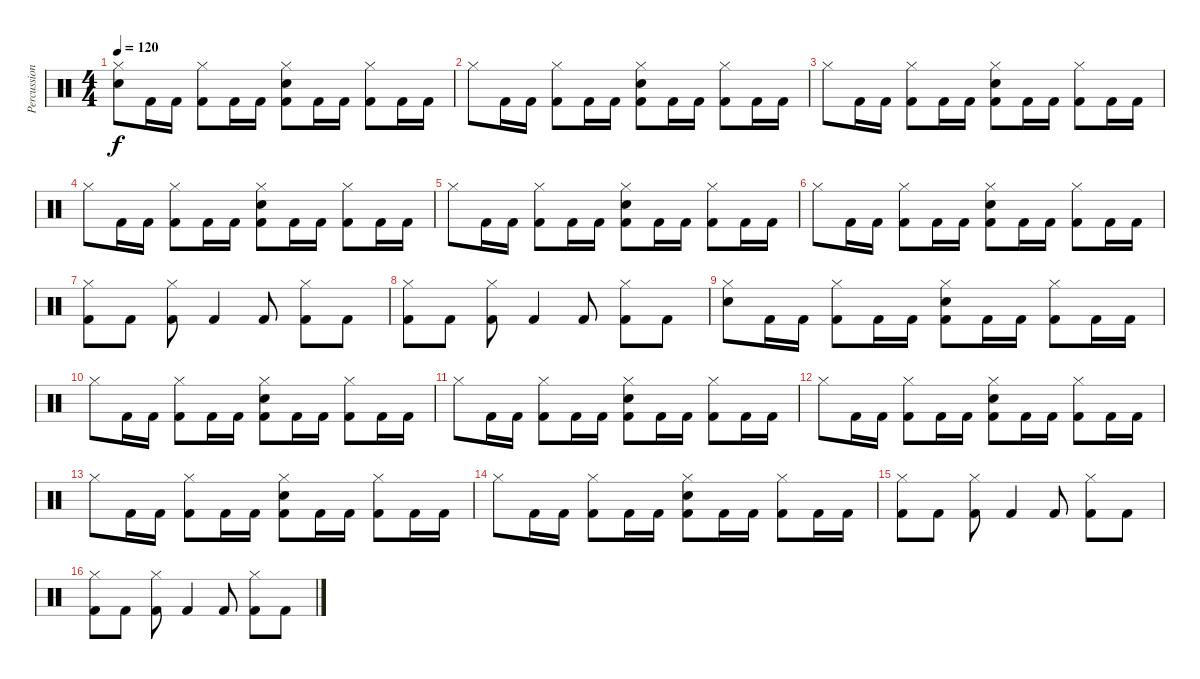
\track ("Percussion" "Percussion") {instrument percussion}
\staff {score}
\articulation defaults
\ts (4 4)
\tempo 120
\clef neutral
\ks c
("Hi-Hat (closed)" "Snare (hit) 2").8{dy f} "Kick (hit) 2".16 "Kick (hit) 2".16 ("Hi-Hat (closed)" "Kick (hit) 2").8 "Kick (hit) 2".16 "Kick (hit) 2".16 ("Hi-Hat (closed)" "Snare (hit) 2" "Kick (hit) 2").8 "Kick (hit) 2".16 "Kick (hit) 2".16 ("Hi-Hat (closed)" "Kick (hit) 2").8 "Kick (hit) 2".16 "Kick (hit) 2".16 |
"Hi-Hat (closed)".8 "Kick (hit) 2".16 "Kick (hit) 2".16 ("Hi-Hat (closed)" "Kick (hit) 2").8 "Kick (hit) 2".16 "Kick (hit) 2".16 ("Hi-Hat (closed)" "Snare (hit) 2" "Kick (hit) 2").8 "Kick (hit) 2".16 "Kick (hit) 2".16 ("Hi-Hat (closed)" "Kick (hit) 2").8 "Kick (hit) 2".16 "Kick (hit) 2".16 |
"Hi-Hat (closed)".8 "Kick (hit) 2".16 "Kick (hit) 2".16 ("Hi-Hat (closed)" "Kick (hit) 2").8 "Kick (hit) 2".16 "Kick (hit) 2".16 ("Hi-Hat (closed)" "Snare (hit) 2" "Kick (hit) 2").8 "Kick (hit) 2".16 "Kick (hit) 2".16 ("Hi-Hat (closed)" "Kick (hit) 2").8 "Kick (hit) 2".16 "Kick (hit) 2".16 |
"Hi-Hat (closed)".8 "Kick (hit) 2".16 "Kick (hit) 2".16 ("Hi-Hat (closed)" "Kick (hit) 2").8 "Kick (hit) 2".16 "Kick (hit) 2".16 ("Hi-Hat (closed)" "Snare (hit) 2" "Kick (hit) 2").8 "Kick (hit) 2".16 "Kick (hit) 2".16 ("Hi-Hat (closed)" "Kick (hit) 2").8 "Kick (hit) 2".16 "Kick (hit) 2".16 |
"Hi-Hat (closed)".8 "Kick (hit) 2".16 "Kick (hit) 2".16 ("Hi-Hat (closed)" "Kick (hit) 2").8 "Kick (hit) 2".16 "Kick (hit) 2".16 ("Hi-Hat (closed)" "Snare (hit) 2" "Kick (hit) 2").8 "Kick (hit) 2".16 "Kick (hit) 2".16 ("Hi-Hat (closed)" "Kick (hit) 2").8 "Kick (hit) 2".16 "Kick (hit) 2".16 |
"Hi-Hat (closed)".8 "Kick (hit) 2".16 "Kick (hit) 2".16 ("Hi-Hat (closed)" "Kick (hit) 2").8 "Kick (hit) 2".16 "Kick (hit) 2".16 ("Hi-Hat (closed)" "Snare (hit) 2" "Kick (hit) 2").8 "Kick (hit) 2".16 "Kick (hit) 2".16 ("Hi-Hat (closed)" "Kick (hit) 2").8 "Kick (hit) 2".16 "Kick (hit) 2".16 |
("Hi-Hat (closed)" "Kick (hit) 2").8 "Kick (hit) 2".8 ("Hi-Hat (closed)" "Kick (hit) 2").8 "Kick (hit) 2".4 "Kick (hit) 2".8 ("Hi-Hat (closed)" "Kick (hit) 2").8 "Kick (hit) 2".8 |
("Hi-Hat (closed)" "Kick (hit) 2").8 "Kick (hit) 2".8 ("Hi-Hat (closed)" "Kick (hit) 2").8 "Kick (hit) 2".4 "Kick (hit) 2".8 ("Hi-Hat (closed)" "Kick (hit) 2").8 "Kick (hit) 2".8 |
("Hi-Hat (closed)" "Snare (hit) 2").8 "Kick (hit) 2".16 "Kick (hit) 2".16 ("Hi-Hat (closed)" "Kick (hit) 2").8 "Kick (hit) 2".16 "Kick (hit) 2".16 ("Hi-Hat (closed)" "Snare (hit) 2" "Kick (hit) 2").8 "Kick (hit) 2".16 "Kick (hit) 2".16 ("Hi-Hat (closed)" "Kick (hit) 2").8 "Kick (hit) 2".16 "Kick (hit) 2".16 |
"Hi-Hat (closed)".8 "Kick (hit) 2".16 "Kick (hit) 2".16 ("Hi-Hat (closed)" "Kick (hit) 2").8 "Kick (hit) 2".16 "Kick (hit) 2".16 ("Hi-Hat (closed)" "Snare (hit) 2" "Kick (hit) 2").8 "Kick (hit) 2".16 "Kick (hit) 2".16 ("Hi-Hat (closed)" "Kick (hit) 2").8 "Kick (hit) 2".16 "Kick (hit) 2".16 |
"Hi-Hat (closed)".8 "Kick (hit) 2".16 "Kick (hit) 2".16 ("Hi-Hat (closed)" "Kick (hit) 2").8 "Kick (hit) 2".16 "Kick (hit) 2".16 ("Hi-Hat (closed)" "Snare (hit) 2" "Kick (hit) 2").8 "Kick (hit) 2".16 "Kick (hit) 2".16 ("Hi-Hat (closed)" "Kick (hit) 2").8 "Kick (hit) 2".16 "Kick (hit) 2".16 |
"Hi-Hat (closed)".8 "Kick (hit) 2".16 "Kick (hit) 2".16 ("Hi-Hat (closed)" "Kick (hit) 2").8 "Kick (hit) 2".16 "Kick (hit) 2".16 ("Hi-Hat (closed)" "Snare (hit) 2" "Kick (hit) 2").8 "Kick (hit) 2".16 "Kick (hit) 2".16 ("Hi-Hat (closed)" "Kick (hit) 2").8 "Kick (hit) 2".16 "Kick (hit) 2".16 |
"Hi-Hat (closed)".8 "Kick (hit) 2".16 "Kick (hit) 2".16 ("Hi-Hat (closed)" "Kick (hit) 2").8 "Kick (hit) 2".16 "Kick (hit) 2".16 ("Hi-Hat (closed)" "Snare (hit) 2" "Kick (hit) 2").8 "Kick (hit) 2".16 "Kick (hit) 2".16 ("Hi-Hat (closed)" "Kick (hit) 2").8 "Kick (hit) 2".16 "Kick (hit) 2".16 |
"Hi-Hat (closed)".8 "Kick (hit) 2".16 "Kick (hit) 2".16 ("Hi-Hat (closed)" "Kick (hit) 2").8 "Kick (hit) 2".16 "Kick (hit) 2".16 ("Hi-Hat (closed)" "Snare (hit) 2" "Kick (hit) 2").8 "Kick (hit) 2".16 "Kick (hit) 2".16 ("Hi-Hat (closed)" "Kick (hit) 2").8 "Kick (hit) 2".16 "Kick (hit) 2".16 |
("Hi-Hat (closed)" "Kick (hit) 2").8 "Kick (hit) 2".8 ("Hi-Hat (closed)" "Kick (hit) 2").8 "Kick (hit) 2".4 "Kick (hit) 2".8 ("Hi-Hat (closed)" "Kick (hit) 2").8 "Kick (hit) 2".8 |
("Hi-Hat (closed)" "Kick (hit) 2").8 "Kick (hit) 2".8 ("Hi-Hat (closed)" "Kick (hit) 2").8 "Kick (hit) 2".4 "Kick (hit) 2".8 ("Hi-Hat (closed)" "Kick (hit) 2").8 "Kick (hit) 2".8
